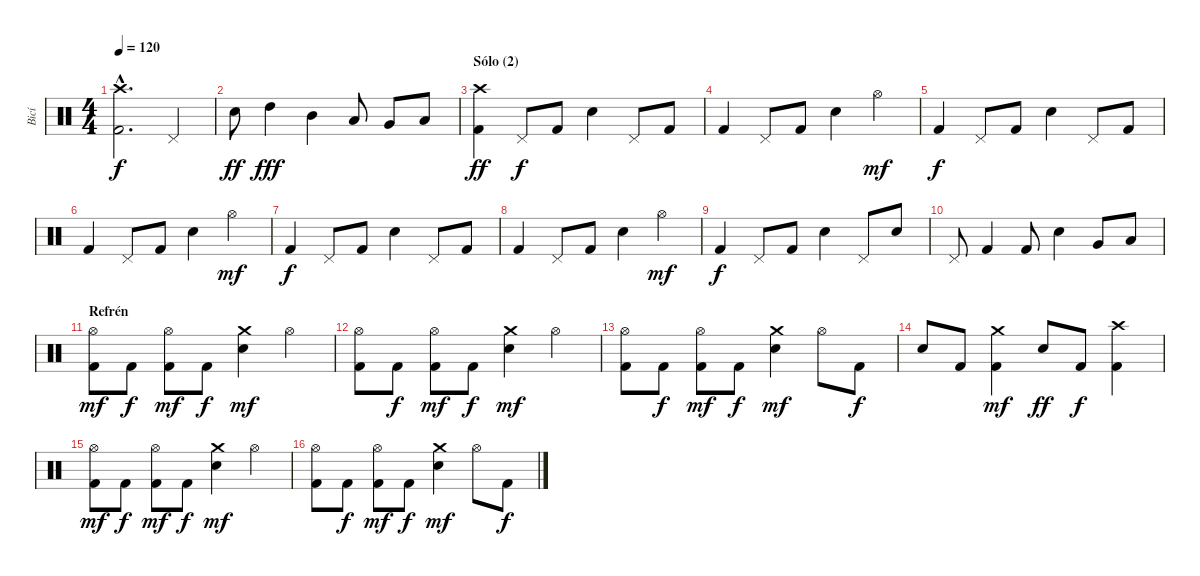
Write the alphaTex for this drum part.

\track ("Bicí" "Bicí") {instrument percussion}
\staff {score}
\articulation defaults
\ts (4 4)
\tempo 120
\clef neutral
\ks c
("Crash high (hit)"{hac} "Kick (hit) 2"{hac}).2{d dy f} "Pedal Hi-Hat (hit)".4 |
"Snare (hit) 2".8{dy ff} "High Tom (hit)".4{dy fff} "Mid Tom (hit)".4 "Low Tom (hit)".8 "Very Low Tom (hit)".8 "Low Floor Tom (hit)".8 |
\section ("" "Sólo (2)")
("Crash high (hit)" "Kick (hit) 2").4{dy ff} "Pedal Hi-Hat (hit)".8{dy f} "Kick (hit) 2".8 "Snare (hit) 2".4 "Pedal Hi-Hat (hit)".8 "Kick (hit) 2".8 |
"Kick (hit) 2".4 "Pedal Hi-Hat (hit)".8 "Kick (hit) 2".8 "Snare (hit) 2".4 "Hi-Hat (open)".4{dy mf} |
"Kick (hit) 2".4{dy f} "Pedal Hi-Hat (hit)".8 "Kick (hit) 2".8 "Snare (hit) 2".4 "Pedal Hi-Hat (hit)".8 "Kick (hit) 2".8 |
"Kick (hit) 2".4 "Pedal Hi-Hat (hit)".8 "Kick (hit) 2".8 "Snare (hit) 2".4 "Hi-Hat (open)".4{dy mf} |
"Kick (hit) 2".4{dy f} "Pedal Hi-Hat (hit)".8 "Kick (hit) 2".8 "Snare (hit) 2".4 "Pedal Hi-Hat (hit)".8 "Kick (hit) 2".8 |
"Kick (hit) 2".4 "Pedal Hi-Hat (hit)".8 "Kick (hit) 2".8 "Snare (hit) 2".4 "Hi-Hat (open)".4{dy mf} |
"Kick (hit) 2".4{dy f} "Pedal Hi-Hat (hit)".8 "Kick (hit) 2".8 "Snare (hit) 2".4 "Pedal Hi-Hat (hit)".8 "Snare (hit) 2".8 |
"Pedal Hi-Hat (hit)".8 "Kick (hit) 2".4 "Kick (hit) 2".8 "Snare (hit) 2".4 "Very Low Tom (hit)".8 "Low Floor Tom (hit)".8 |
\section ("" "Refrén")
("Hi-Hat (open)" "Kick (hit) 2").8{dy mf} "Kick (hit) 2".8{dy f} ("Hi-Hat (open)" "Kick (hit) 2").8{dy mf} "Kick (hit) 2".8{dy f} ("Crash medium (hit)" "Snare (hit) 2").4{dy mf} "Hi-Hat (open)".4 |
("Hi-Hat (open)" "Kick (hit) 2").8 "Kick (hit) 2".8{dy f} ("Hi-Hat (open)" "Kick (hit) 2").8{dy mf} "Kick (hit) 2".8{dy f} ("Crash medium (hit)" "Snare (hit) 2").4{dy mf} "Hi-Hat (open)".4 |
("Hi-Hat (open)" "Kick (hit) 2").8 "Kick (hit) 2".8{dy f} ("Hi-Hat (open)" "Kick (hit) 2").8{dy mf} "Kick (hit) 2".8{dy f} ("Crash medium (hit)" "Snare (hit) 2").4{dy mf} "Hi-Hat (open)".8 "Kick (hit) 2".8{dy f} |
"Snare (hit) 2".8 "Kick (hit) 2".8 ("Crash medium (hit)" "Kick (hit) 2").4{dy mf} "Snare (hit) 2".8{dy ff} "Kick (hit) 2".8{dy f} ("Crash high (hit)" "Kick (hit) 2").4 |
("Hi-Hat (open)" "Kick (hit) 2").8{dy mf} "Kick (hit) 2".8{dy f} ("Hi-Hat (open)" "Kick (hit) 2").8{dy mf} "Kick (hit) 2".8{dy f} ("Crash medium (hit)" "Snare (hit) 2").4{dy mf} "Hi-Hat (open)".4 |
("Hi-Hat (open)" "Kick (hit) 2").8 "Kick (hit) 2".8{dy f} ("Hi-Hat (open)" "Kick (hit) 2").8{dy mf} "Kick (hit) 2".8{dy f} ("Crash medium (hit)" "Snare (hit) 2").4{dy mf} "Hi-Hat (open)".8 "Kick (hit) 2".8{dy f}
